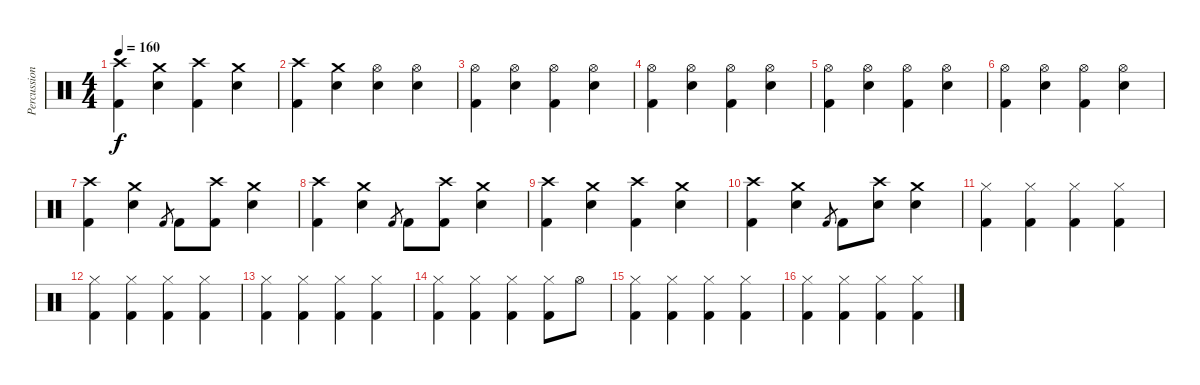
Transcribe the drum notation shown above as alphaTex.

\track ("Percussion" "Percussion") {instrument percussion}
\staff {score}
\articulation defaults
\ts (4 4)
\tempo 160
\clef neutral
\ks c
("Crash high (hit)" "Kick (hit) 2").4{dy f} ("Crash medium (hit)" "Electric Snare (hit)").4 ("Crash high (hit)" "Kick (hit) 2").4 ("Crash medium (hit)" "Electric Snare (hit)").4 |
("Crash high (hit)" "Kick (hit) 2").4 ("Crash medium (hit)" "Electric Snare (hit)").4 ("Hi-Hat (open)" "Electric Snare (hit)").4 ("Hi-Hat (open)" "Electric Snare (hit)").4 |
("Hi-Hat (open)" "Kick (hit) 2").4 ("Hi-Hat (open)" "Electric Snare (hit)").4 ("Hi-Hat (open)" "Kick (hit) 2").4 ("Hi-Hat (open)" "Electric Snare (hit)").4 |
("Hi-Hat (open)" "Kick (hit) 2").4 ("Hi-Hat (open)" "Electric Snare (hit)").4 ("Hi-Hat (open)" "Kick (hit) 2").4 ("Hi-Hat (open)" "Electric Snare (hit)").4 |
("Hi-Hat (open)" "Kick (hit) 2").4 ("Hi-Hat (open)" "Electric Snare (hit)").4 ("Hi-Hat (open)" "Kick (hit) 2").4 ("Hi-Hat (open)" "Electric Snare (hit)").4 |
("Hi-Hat (open)" "Kick (hit) 2").4 ("Hi-Hat (open)" "Electric Snare (hit)").4 ("Hi-Hat (open)" "Kick (hit) 2").4 ("Hi-Hat (open)" "Electric Snare (hit)").4 |
("Crash high (hit)" "Kick (hit) 2").4 ("Crash medium (hit)" "Electric Snare (hit)").4 "Kick (hit) 2".8{gr} "Kick (hit) 2".8 ("Crash high (hit)" "Kick (hit) 2").8 ("Crash medium (hit)" "Electric Snare (hit)").4 |
("Crash high (hit)" "Kick (hit) 2").4 ("Crash medium (hit)" "Electric Snare (hit)").4 "Kick (hit) 2".8{gr} "Kick (hit) 2".8 ("Crash high (hit)" "Kick (hit) 2").8 ("Crash medium (hit)" "Electric Snare (hit)").4 |
("Crash high (hit)" "Kick (hit) 2").4 ("Crash medium (hit)" "Electric Snare (hit)").4 ("Crash high (hit)" "Kick (hit) 2").4 ("Crash medium (hit)" "Electric Snare (hit)").4 |
("Crash high (hit)" "Kick (hit) 2").4 ("Crash medium (hit)" "Electric Snare (hit)").4 "Kick (hit) 2".8{gr} "Kick (hit) 2".8 ("Crash high (hit)" "Electric Snare (hit)").8 ("Crash medium (hit)" "Electric Snare (hit)").4 |
("Hi-Hat (closed)" "Kick (hit) 2").4 ("Hi-Hat (closed)" "Kick (hit) 2").4 ("Hi-Hat (closed)" "Kick (hit) 2").4 ("Hi-Hat (closed)" "Kick (hit) 2").4 |
("Hi-Hat (closed)" "Kick (hit) 2").4 ("Hi-Hat (closed)" "Kick (hit) 2").4 ("Hi-Hat (closed)" "Kick (hit) 2").4 ("Hi-Hat (closed)" "Kick (hit) 2").4 |
("Hi-Hat (closed)" "Kick (hit) 2").4 ("Hi-Hat (closed)" "Kick (hit) 2").4 ("Hi-Hat (closed)" "Kick (hit) 2").4 ("Hi-Hat (closed)" "Kick (hit) 2").4 |
("Hi-Hat (closed)" "Kick (hit) 2").4 ("Hi-Hat (closed)" "Kick (hit) 2").4 ("Hi-Hat (closed)" "Kick (hit) 2").4 ("Hi-Hat (closed)" "Kick (hit) 2").8 "Hi-Hat (open)".8 |
("Hi-Hat (closed)" "Kick (hit) 2").4 ("Hi-Hat (closed)" "Kick (hit) 2").4 ("Hi-Hat (closed)" "Kick (hit) 2").4 ("Hi-Hat (closed)" "Kick (hit) 2").4 |
("Hi-Hat (closed)" "Kick (hit) 2").4 ("Hi-Hat (closed)" "Kick (hit) 2").4 ("Hi-Hat (closed)" "Kick (hit) 2").4 ("Hi-Hat (closed)" "Kick (hit) 2").4
